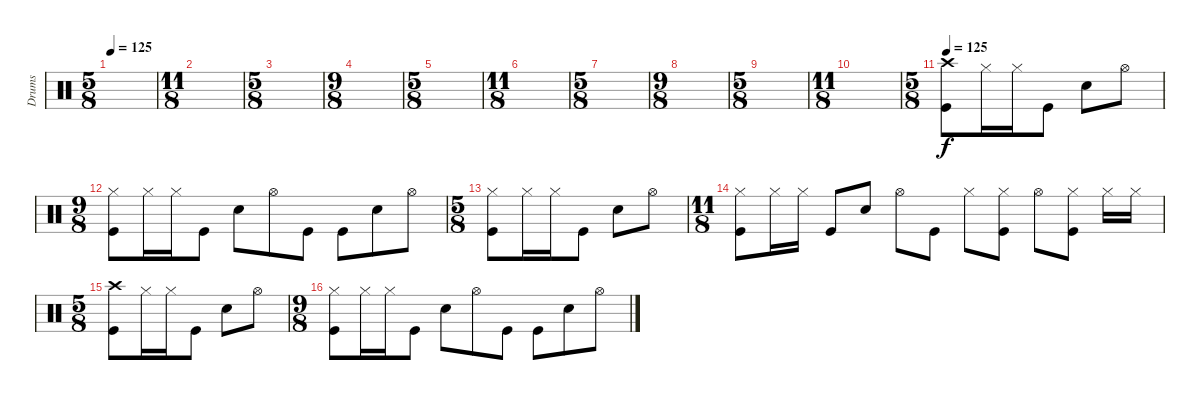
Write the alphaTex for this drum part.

\track ("Drums" "Drums") {instrument percussion}
\staff {score}
\articulation defaults
\ts (5 8)
\tempo 125
\clef neutral
\ks c
|
\ts (11 8)
|
\ts (5 8)
|
\ts (9 8)
|
\ts (5 8)
|
\ts (11 8)
|
\ts (5 8)
|
\ts (9 8)
|
\ts (5 8)
|
\ts (11 8)
|
\ts (5 8)
\tempo 125
("Kick (hit)" "Crash high (hit)").8 "Hi-Hat (closed)".16 "Hi-Hat (closed)".16 "Kick (hit)".8 "Snare (hit) 2".8 "Hi-Hat (open)".8 |
\ts (9 8)
("Kick (hit)" "Hi-Hat (closed)").8 "Hi-Hat (closed)".16 "Hi-Hat (closed)".16 "Kick (hit)".8 "Snare (hit) 2".8 "Hi-Hat (open)".8 "Kick (hit)".8 "Kick (hit)".8 "Snare (hit) 2".8 "Hi-Hat (open)".8 |
\ts (5 8)
("Kick (hit)" "Hi-Hat (closed)").8 "Hi-Hat (closed)".16 "Hi-Hat (closed)".16 "Kick (hit)".8 "Snare (hit) 2".8 "Hi-Hat (open)".8 |
\ts (11 8)
("Kick (hit)" "Hi-Hat (closed)").8 "Hi-Hat (closed)".16 "Hi-Hat (closed)".16 "Kick (hit)".8 "Snare (hit) 2".8 "Hi-Hat (open)".8 "Kick (hit)".8 "Hi-Hat (closed)".8 ("Kick (hit)" "Hi-Hat (closed)").8 "Hi-Hat (open)".8 ("Kick (hit)" "Hi-Hat (closed)").8 "Hi-Hat (closed)".16 "Hi-Hat (closed)".16 |
\ts (5 8)
("Kick (hit)" "Crash high (hit)").8 "Hi-Hat (closed)".16 "Hi-Hat (closed)".16 "Kick (hit)".8 "Snare (hit) 2".8 "Hi-Hat (open)".8 |
\ts (9 8)
("Kick (hit)" "Hi-Hat (closed)").8 "Hi-Hat (closed)".16 "Hi-Hat (closed)".16 "Kick (hit)".8 "Snare (hit) 2".8 "Hi-Hat (open)".8 "Kick (hit)".8 "Kick (hit)".8 "Snare (hit) 2".8 "Hi-Hat (open)".8
